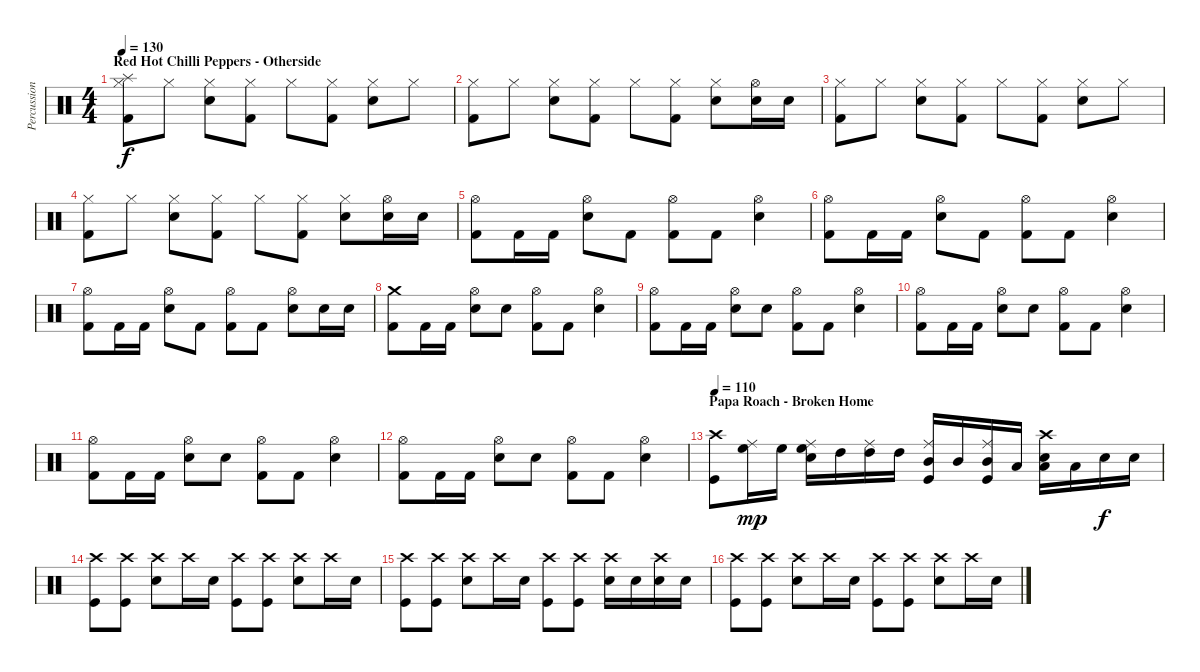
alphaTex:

\track ("Percussion" "Percussion") {instrument percussion}
\staff {score}
\articulation defaults
\ts (4 4)
\section ("" "Red Hot Chilli Peppers - Otherside")
\tempo 130
\clef neutral
\ks c
("Kick (hit) 2" "Hi-Hat (closed)" "Splash (hit)").8{dy f} "Hi-Hat (closed)".8 ("Hi-Hat (closed)" "Electric Snare (hit)").8 ("Kick (hit) 2" "Hi-Hat (closed)").8 "Hi-Hat (closed)".8 ("Kick (hit) 2" "Hi-Hat (closed)").8 ("Hi-Hat (closed)" "Electric Snare (hit)").8 "Hi-Hat (closed)".8 |
("Kick (hit) 2" "Hi-Hat (closed)").8 "Hi-Hat (closed)".8 ("Hi-Hat (closed)" "Electric Snare (hit)").8 ("Kick (hit) 2" "Hi-Hat (closed)").8 "Hi-Hat (closed)".8 ("Kick (hit) 2" "Hi-Hat (closed)").8 ("Hi-Hat (closed)" "Electric Snare (hit)").8 ("Hi-Hat (open)" "Electric Snare (hit)").16 "Electric Snare (hit)".16 |
("Kick (hit) 2" "Hi-Hat (closed)").8 "Hi-Hat (closed)".8 ("Hi-Hat (closed)" "Electric Snare (hit)").8 ("Kick (hit) 2" "Hi-Hat (closed)").8 "Hi-Hat (closed)".8 ("Kick (hit) 2" "Hi-Hat (closed)").8 ("Hi-Hat (closed)" "Electric Snare (hit)").8 "Hi-Hat (closed)".8 |
("Kick (hit) 2" "Hi-Hat (closed)").8 "Hi-Hat (closed)".8 ("Hi-Hat (closed)" "Electric Snare (hit)").8 ("Kick (hit) 2" "Hi-Hat (closed)").8 "Hi-Hat (closed)".8 ("Kick (hit) 2" "Hi-Hat (closed)").8 ("Hi-Hat (closed)" "Electric Snare (hit)").8 ("Hi-Hat (open)" "Electric Snare (hit)").16 "Electric Snare (hit)".16 |
("Hi-Hat (open)" "Kick (hit) 2").8 "Kick (hit) 2".16 "Kick (hit) 2".16 ("Hi-Hat (open)" "Electric Snare (hit)").8 "Kick (hit) 2".8 ("Hi-Hat (open)" "Kick (hit) 2").8 "Kick (hit) 2".8 ("Hi-Hat (open)" "Electric Snare (hit)").4 |
("Hi-Hat (open)" "Kick (hit) 2").8 "Kick (hit) 2".16 "Kick (hit) 2".16 ("Hi-Hat (open)" "Electric Snare (hit)").8 "Kick (hit) 2".8 ("Hi-Hat (open)" "Kick (hit) 2").8 "Kick (hit) 2".8 ("Hi-Hat (open)" "Electric Snare (hit)").4 |
("Hi-Hat (open)" "Kick (hit) 2").8 "Kick (hit) 2".16 "Kick (hit) 2".16 ("Hi-Hat (open)" "Electric Snare (hit)").8 "Kick (hit) 2".8 ("Hi-Hat (open)" "Kick (hit) 2").8 "Kick (hit) 2".8 ("Hi-Hat (open)" "Electric Snare (hit)").8 "Electric Snare (hit)".16 "Electric Snare (hit)".16 |
("Crash medium (hit)" "Kick (hit) 2").8 "Kick (hit) 2".16 "Kick (hit) 2".16 ("Hi-Hat (open)" "Electric Snare (hit)").8 "Electric Snare (hit)".8 ("Hi-Hat (open)" "Kick (hit) 2").8 "Kick (hit) 2".8 ("Hi-Hat (open)" "Electric Snare (hit)").4 |
("Hi-Hat (open)" "Kick (hit) 2").8 "Kick (hit) 2".16 "Kick (hit) 2".16 ("Hi-Hat (open)" "Electric Snare (hit)").8 "Electric Snare (hit)".8 ("Hi-Hat (open)" "Kick (hit) 2").8 "Kick (hit) 2".8 ("Hi-Hat (open)" "Electric Snare (hit)").4 |
("Hi-Hat (open)" "Kick (hit) 2").8 "Kick (hit) 2".16 "Kick (hit) 2".16 ("Hi-Hat (open)" "Electric Snare (hit)").8 "Electric Snare (hit)".8 ("Hi-Hat (open)" "Kick (hit) 2").8 "Kick (hit) 2".8 ("Hi-Hat (open)" "Electric Snare (hit)").4 |
("Hi-Hat (open)" "Kick (hit) 2").8 "Kick (hit) 2".16 "Kick (hit) 2".16 ("Hi-Hat (open)" "Electric Snare (hit)").8 "Electric Snare (hit)".8 ("Hi-Hat (open)" "Kick (hit) 2").8 "Kick (hit) 2".8 ("Hi-Hat (open)" "Electric Snare (hit)").4 |
("Hi-Hat (open)" "Kick (hit) 2").8 "Kick (hit) 2".16 "Kick (hit) 2".16 ("Hi-Hat (open)" "Electric Snare (hit)").8 "Electric Snare (hit)".8 ("Hi-Hat (open)" "Kick (hit) 2").8 "Kick (hit) 2".8 ("Hi-Hat (open)" "Electric Snare (hit)").4 |
\section ("" "Papa Roach - Broken Home")
\tempo 110
("Crash high (hit)" "Kick (hit)").8 ("Ride (middle)" "High Floor Tom (hit)").16{dy mp} "High Floor Tom (hit)".16 ("Ride (middle)" "High Floor Tom (hit)" "Snare (hit) 2").16 "High Tom (hit)".16 ("Ride (middle)" "High Tom (hit)").16 "High Tom (hit)".16 ("Ride (middle)" "Mid Tom (hit)" "Kick (hit)").16 "Mid Tom (hit)".16 ("Ride (middle)" "Mid Tom (hit)" "Kick (hit)").16 "Low Tom (hit)".16 ("Crash high (hit)" "Low Tom (hit)" "Snare (hit) 2").16 "Low Tom (hit)".16 "Snare (hit) 2".16{dy f} "Snare (hit) 2".16 |
("Crash high (hit)" "Kick (hit)").8 ("Crash high (hit)" "Kick (hit)").8 ("Crash high (hit)" "Snare (hit) 2").8 "Crash high (hit)".16 "Snare (hit) 2".16 ("Crash high (hit)" "Kick (hit)").8 ("Crash high (hit)" "Kick (hit)").8 ("Crash high (hit)" "Snare (hit) 2").8 "Crash high (hit)".16 "Snare (hit) 2".16 |
("Crash high (hit)" "Kick (hit)").8 ("Crash high (hit)" "Kick (hit)").8 ("Crash high (hit)" "Snare (hit) 2").8 "Crash high (hit)".16 "Snare (hit) 2".16 ("Crash high (hit)" "Kick (hit)").8 ("Crash high (hit)" "Kick (hit)").8 ("Crash high (hit)" "Snare (hit) 2").16 "Snare (hit) 2".16 ("Crash high (hit)" "Snare (hit) 2").16 "Snare (hit) 2".16 |
("Crash high (hit)" "Kick (hit)").8 ("Crash high (hit)" "Kick (hit)").8 ("Crash high (hit)" "Snare (hit) 2").8 "Crash high (hit)".16 "Snare (hit) 2".16 ("Crash high (hit)" "Kick (hit)").8 ("Crash high (hit)" "Kick (hit)").8 ("Crash high (hit)" "Snare (hit) 2").8 "Crash high (hit)".16 "Snare (hit) 2".16
